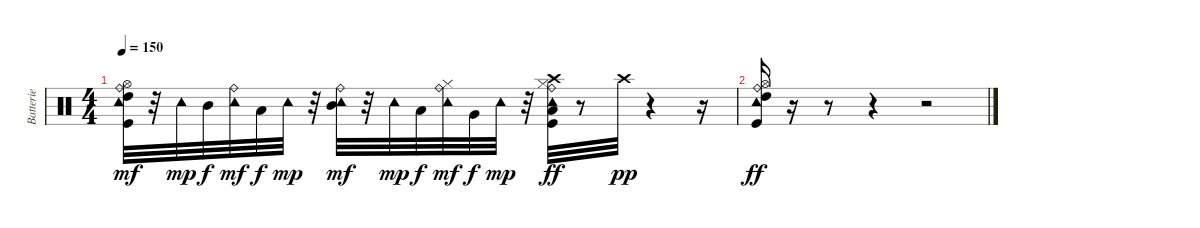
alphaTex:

\track ("Batterie" "Batterie") {instrument percussion}
\staff {score}
\articulation defaults
\ts (4 4)
\tempo 150
\clef neutral
\ks c
("Kick (hit)" "Hi-Hat (open)" "High Tom (hit)" "Ride (bell)" "Tambourine (hit)").32{dy mf} r.32 "Tambourine (hit)".32{dy mp} "Mid Tom (hit)".32{dy f} ("Ride (bell)" "Tambourine (hit)").32{dy mf} "Low Tom (hit)".32{dy f} "Tambourine (hit)".32{dy mp} r.32 ("Mid Tom (hit)" "Ride (bell)" "Tambourine (hit)").32{dy mf} r.32 "Tambourine (hit)".32{dy mp} "Low Tom (hit)".32{dy f} ("Hi-Hat (closed)" "Ride (bell)" "Tambourine (hit)").32{dy mf} "Very Low Tom (hit)".32{dy f} "Tambourine (hit)".32{dy mp} r.32 ("Kick (hit)" "Low Floor Tom (hit)" "Hi-Hat (closed)" "Crash high (hit)" "Ride (bell)" "Tambourine (hit)").32{dy ff} r.8 "Crash high (hit)".32{dy pp} r.4 r.16 |
("Kick (hit)" "Hi-Hat (open)" "High Tom (hit)" "Ride (bell)" "Tambourine (hit)").16{dy ff} r.16 r.8 r.4 r.2
